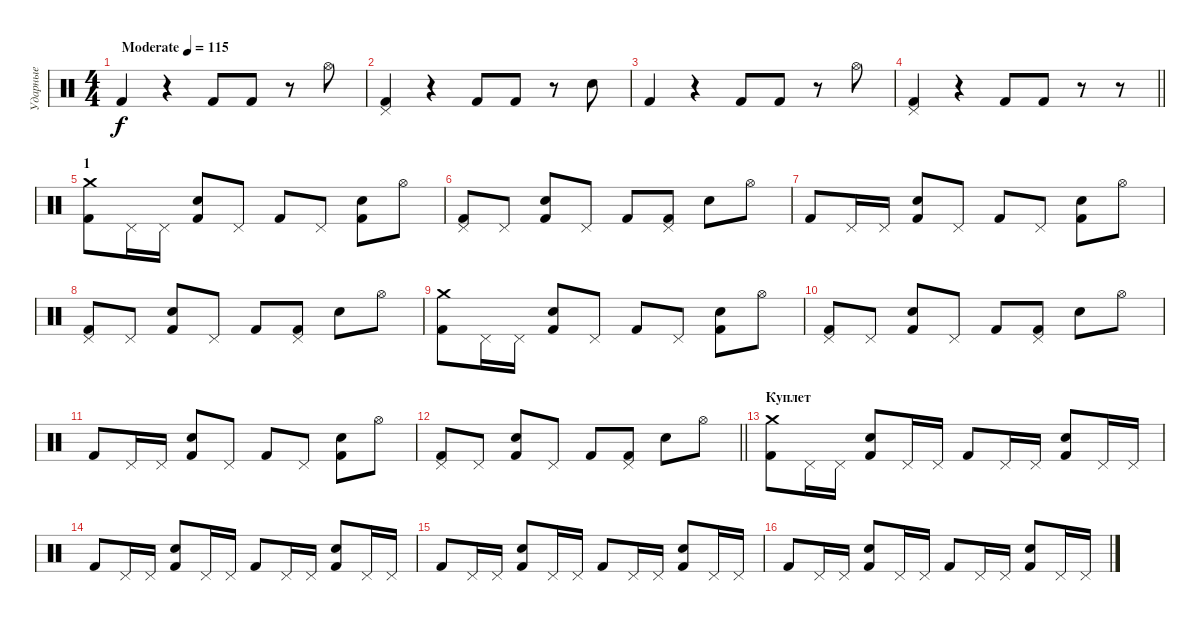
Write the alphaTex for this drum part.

\track ("Ударные" "Ударные") {instrument percussion}
\staff {score}
\articulation defaults
\ts (4 4)
\tempo (115 "Moderate")
\clef neutral
\ks c "Kick (hit) 2".4{dy f}
r.4 "Kick (hit) 2".8 "Kick (hit) 2".8 r.8 "Hi-Hat (open)".8 |
("Kick (hit) 2" "Pedal Hi-Hat (hit)").4 r.4 "Kick (hit) 2".8 "Kick (hit) 2".8 r.8 "Electric Snare (hit)".8 |
"Kick (hit) 2".4 r.4 "Kick (hit) 2".8 "Kick (hit) 2".8 r.8 "Hi-Hat (open)".8 |
\barLineRight lightlight
("Kick (hit) 2" "Pedal Hi-Hat (hit)").4 r.4 "Kick (hit) 2".8 "Kick (hit) 2".8 r.8 r.8 |
\section ("" "1")
("Kick (hit) 2" "Crash medium (hit)").8 "Pedal Hi-Hat (hit)".16 "Pedal Hi-Hat (hit)".16 ("Electric Snare (hit)" "Kick (hit) 2").8 "Pedal Hi-Hat (hit)".8 "Kick (hit) 2".8 "Pedal Hi-Hat (hit)".8 ("Electric Snare (hit)" "Kick (hit) 2").8 "Hi-Hat (open)".8 |
("Kick (hit) 2" "Pedal Hi-Hat (hit)").8 "Pedal Hi-Hat (hit)".8 ("Electric Snare (hit)" "Kick (hit) 2").8 "Pedal Hi-Hat (hit)".8 "Kick (hit) 2".8 ("Pedal Hi-Hat (hit)" "Kick (hit) 2").8 "Electric Snare (hit)".8 "Hi-Hat (open)".8 |
"Kick (hit) 2".8 "Pedal Hi-Hat (hit)".16 "Pedal Hi-Hat (hit)".16 ("Electric Snare (hit)" "Kick (hit) 2").8 "Pedal Hi-Hat (hit)".8 "Kick (hit) 2".8 "Pedal Hi-Hat (hit)".8 ("Electric Snare (hit)" "Kick (hit) 2").8 "Hi-Hat (open)".8 |
("Kick (hit) 2" "Pedal Hi-Hat (hit)").8 "Pedal Hi-Hat (hit)".8 ("Electric Snare (hit)" "Kick (hit) 2").8 "Pedal Hi-Hat (hit)".8 "Kick (hit) 2".8 ("Pedal Hi-Hat (hit)" "Kick (hit) 2").8 "Electric Snare (hit)".8 "Hi-Hat (open)".8 |
("Kick (hit) 2" "Crash medium (hit)").8 "Pedal Hi-Hat (hit)".16 "Pedal Hi-Hat (hit)".16 ("Electric Snare (hit)" "Kick (hit) 2").8 "Pedal Hi-Hat (hit)".8 "Kick (hit) 2".8 "Pedal Hi-Hat (hit)".8 ("Electric Snare (hit)" "Kick (hit) 2").8 "Hi-Hat (open)".8 |
("Kick (hit) 2" "Pedal Hi-Hat (hit)").8 "Pedal Hi-Hat (hit)".8 ("Electric Snare (hit)" "Kick (hit) 2").8 "Pedal Hi-Hat (hit)".8 "Kick (hit) 2".8 ("Pedal Hi-Hat (hit)" "Kick (hit) 2").8 "Electric Snare (hit)".8 "Hi-Hat (open)".8 |
"Kick (hit) 2".8 "Pedal Hi-Hat (hit)".16 "Pedal Hi-Hat (hit)".16 ("Electric Snare (hit)" "Kick (hit) 2").8 "Pedal Hi-Hat (hit)".8 "Kick (hit) 2".8 "Pedal Hi-Hat (hit)".8 ("Electric Snare (hit)" "Kick (hit) 2").8 "Hi-Hat (open)".8 |
\barLineRight lightlight
("Kick (hit) 2" "Pedal Hi-Hat (hit)").8 "Pedal Hi-Hat (hit)".8 ("Electric Snare (hit)" "Kick (hit) 2").8 "Pedal Hi-Hat (hit)".8 "Kick (hit) 2".8 ("Pedal Hi-Hat (hit)" "Kick (hit) 2").8 "Electric Snare (hit)".8 "Hi-Hat (open)".8 |
\section ("" "Куплет")
("Kick (hit) 2" "Crash medium (hit)").8 "Pedal Hi-Hat (hit)".16 "Pedal Hi-Hat (hit)".16 ("Kick (hit) 2" "Electric Snare (hit)").8 "Pedal Hi-Hat (hit)".16 "Pedal Hi-Hat (hit)".16 "Kick (hit) 2".8 "Pedal Hi-Hat (hit)".16 "Pedal Hi-Hat (hit)".16 ("Kick (hit) 2" "Electric Snare (hit)").8 "Pedal Hi-Hat (hit)".16 "Pedal Hi-Hat (hit)".16 |
"Kick (hit) 2".8 "Pedal Hi-Hat (hit)".16 "Pedal Hi-Hat (hit)".16 ("Kick (hit) 2" "Electric Snare (hit)").8 "Pedal Hi-Hat (hit)".16 "Pedal Hi-Hat (hit)".16 "Kick (hit) 2".8 "Pedal Hi-Hat (hit)".16 "Pedal Hi-Hat (hit)".16 ("Kick (hit) 2" "Electric Snare (hit)").8 "Pedal Hi-Hat (hit)".16 "Pedal Hi-Hat (hit)".16 |
"Kick (hit) 2".8 "Pedal Hi-Hat (hit)".16 "Pedal Hi-Hat (hit)".16 ("Kick (hit) 2" "Electric Snare (hit)").8 "Pedal Hi-Hat (hit)".16 "Pedal Hi-Hat (hit)".16 "Kick (hit) 2".8 "Pedal Hi-Hat (hit)".16 "Pedal Hi-Hat (hit)".16 ("Kick (hit) 2" "Electric Snare (hit)").8 "Pedal Hi-Hat (hit)".16 "Pedal Hi-Hat (hit)".16 |
"Kick (hit) 2".8 "Pedal Hi-Hat (hit)".16 "Pedal Hi-Hat (hit)".16 ("Kick (hit) 2" "Electric Snare (hit)").8 "Pedal Hi-Hat (hit)".16 "Pedal Hi-Hat (hit)".16 "Kick (hit) 2".8 "Pedal Hi-Hat (hit)".16 "Pedal Hi-Hat (hit)".16 ("Kick (hit) 2" "Electric Snare (hit)").8 "Pedal Hi-Hat (hit)".16 "Pedal Hi-Hat (hit)".16
